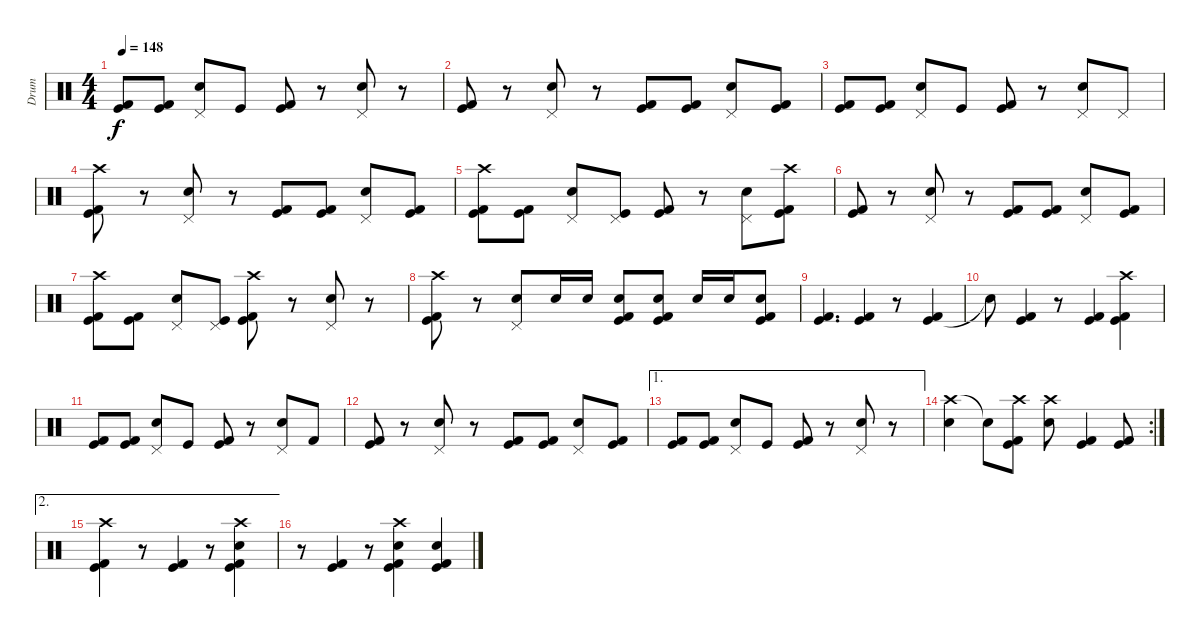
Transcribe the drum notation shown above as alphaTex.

\track ("Drum" "Drum") {instrument percussion}
\staff {score}
\articulation defaults
\ts (4 4)
\tempo 148
\clef neutral
\ks c
("Kick (hit)" "Kick (hit) 2").8{dy f} ("Kick (hit)" "Kick (hit) 2").8 ("Pedal Hi-Hat (hit)" "Snare (hit) 2").8 "Kick (hit)".8 ("Kick (hit)" "Kick (hit) 2").8 r.8 ("Pedal Hi-Hat (hit)" "Snare (hit) 2").8 r.8 |
("Kick (hit)" "Kick (hit) 2").8 r.8 ("Pedal Hi-Hat (hit)" "Snare (hit) 2").8 r.8 ("Kick (hit)" "Kick (hit) 2").8 ("Kick (hit)" "Kick (hit) 2").8 ("Pedal Hi-Hat (hit)" "Snare (hit) 2").8 ("Kick (hit)" "Kick (hit) 2").8 |
("Kick (hit)" "Kick (hit) 2").8 ("Kick (hit)" "Kick (hit) 2").8 ("Pedal Hi-Hat (hit)" "Snare (hit) 2").8 "Kick (hit)".8 ("Kick (hit)" "Kick (hit) 2").8 r.8 ("Pedal Hi-Hat (hit)" "Snare (hit) 2").8 "Pedal Hi-Hat (hit)".8 |
("Crash high (hit)" "Kick (hit)" "Kick (hit) 2").8 r.8 ("Pedal Hi-Hat (hit)" "Snare (hit) 2").8 r.8 ("Kick (hit)" "Kick (hit) 2").8 ("Kick (hit)" "Kick (hit) 2").8 ("Pedal Hi-Hat (hit)" "Snare (hit) 2").8 ("Kick (hit)" "Kick (hit) 2").8 |
("Crash high (hit)" "Kick (hit)" "Kick (hit) 2").8 ("Kick (hit)" "Kick (hit) 2").8 ("Pedal Hi-Hat (hit)" "Snare (hit) 2").8 ("Pedal Hi-Hat (hit)" "Kick (hit)").8 ("Kick (hit)" "Kick (hit) 2").8 r.8 ("Pedal Hi-Hat (hit)" "Snare (hit) 2").8 ("Crash high (hit)" "Kick (hit)" "Kick (hit) 2").8 |
("Kick (hit)" "Kick (hit) 2").8 r.8 ("Pedal Hi-Hat (hit)" "Snare (hit) 2").8 r.8 ("Kick (hit)" "Kick (hit) 2").8 ("Kick (hit)" "Kick (hit) 2").8 ("Pedal Hi-Hat (hit)" "Snare (hit) 2").8 ("Kick (hit)" "Kick (hit) 2").8 |
("Crash high (hit)" "Kick (hit)" "Kick (hit) 2").8 ("Kick (hit)" "Kick (hit) 2").8 ("Pedal Hi-Hat (hit)" "Snare (hit) 2").8 ("Pedal Hi-Hat (hit)" "Kick (hit)").8 ("Crash high (hit)" "Kick (hit)" "Kick (hit) 2").8 r.8 ("Pedal Hi-Hat (hit)" "Snare (hit) 2").8 r.8 |
("Crash high (hit)" "Kick (hit)" "Kick (hit) 2").8 r.8 ("Electric Snare (hit)" "Pedal Hi-Hat (hit)").8 "Electric Snare (hit)".16 "Electric Snare (hit)".16 ("Electric Snare (hit)" "Kick (hit)" "Kick (hit) 2").8 ("Electric Snare (hit)" "Kick (hit)" "Kick (hit) 2").8 "Electric Snare (hit)".16 "Electric Snare (hit)".16 ("Electric Snare (hit)" "Kick (hit)" "Kick (hit) 2").8 |
("Kick (hit)" "Kick (hit) 2").4{d} ("Kick (hit)" "Kick (hit) 2").4 r.8 ("Kick (hit)" "Kick (hit) 2").4 |
"Snare (hit)"{t}.8 ("Kick (hit)" "Kick (hit) 2").4 r.8 ("Kick (hit)" "Kick (hit) 2").4 ("Crash high (hit)" "Kick (hit)" "Kick (hit) 2").4 |
("Kick (hit)" "Kick (hit) 2").8 ("Kick (hit)" "Kick (hit) 2").8 ("Pedal Hi-Hat (hit)" "Snare (hit) 2").8 "Kick (hit)".8 ("Kick (hit)" "Kick (hit) 2").8 r.8 ("Pedal Hi-Hat (hit)" "Snare (hit) 2").8 "Kick (hit) 2".8 |
("Kick (hit)" "Kick (hit) 2").8 r.8 ("Pedal Hi-Hat (hit)" "Snare (hit) 2").8 r.8 ("Kick (hit)" "Kick (hit) 2").8 ("Kick (hit)" "Kick (hit) 2").8 ("Pedal Hi-Hat (hit)" "Snare (hit) 2").8 ("Kick (hit)" "Kick (hit) 2").8 |
\ae 1
("Kick (hit)" "Kick (hit) 2").8 ("Kick (hit)" "Kick (hit) 2").8 ("Pedal Hi-Hat (hit)" "Snare (hit) 2").8 "Kick (hit)".8 ("Kick (hit)" "Kick (hit) 2").8 r.8 ("Pedal Hi-Hat (hit)" "Snare (hit) 2").8 r.8 |
\rc 2
("Crash high (hit)" "Snare (hit) 2").4 "Snare (hit)"{t}.8 ("Crash high (hit)" "Kick (hit)" "Kick (hit) 2").8 ("Crash high (hit)" "Snare (hit) 2").8 ("Kick (hit)" "Kick (hit) 2").4 ("Kick (hit)" "Kick (hit) 2").8 |
\ae 2
("Crash high (hit)" "Kick (hit)" "Kick (hit) 2").4 r.8 ("Kick (hit)" "Kick (hit) 2").4 r.8 ("Crash high (hit)" "Snare (hit) 2" "Kick (hit)" "Kick (hit) 2").4 |
r.8 ("Kick (hit)" "Kick (hit) 2").4 r.8 ("Crash high (hit)" "Snare (hit) 2" "Kick (hit)" "Kick (hit) 2").4 ("Snare (hit) 2" "Kick (hit) 2" "Kick (hit)").4
